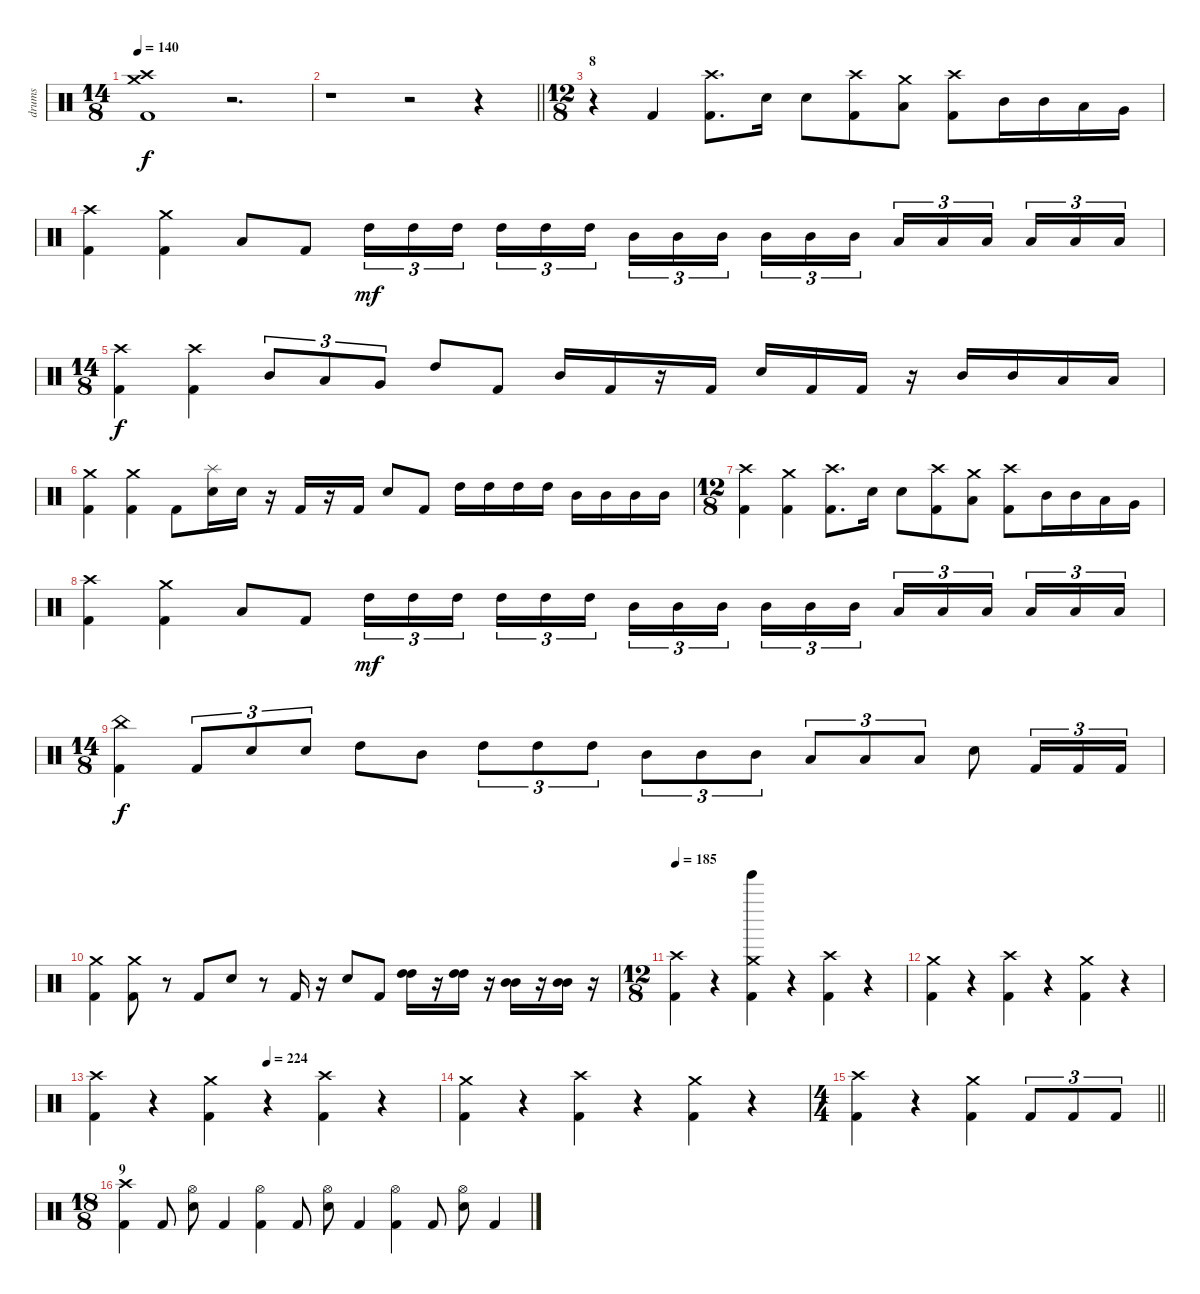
\track ("drums" "drums") {instrument percussion}
\staff {score}
\articulation defaults
\ts (14 8)
\tempo 140
\clef neutral
\ks c
("Crash medium (hit)" "Crash high (hit)" "Kick (hit) 2").1{dy f} r.2{d} |
\barLineRight lightlight
r.1 r.2 r.4 |
\ts (12 8)
\section ("" "8")
r.4 "Kick (hit) 2".4 ("Crash high (hit)" "Kick (hit) 2").8{d} "Electric Snare (hit)".16 "Electric Snare (hit)".8 ("Crash high (hit)" "Kick (hit) 2").8 ("Crash medium (hit)" "Low Tom (hit)").8 ("Crash high (hit)" "Kick (hit) 2").8 "Mid Tom (hit)".16 "Mid Tom (hit)".16 "Low Tom (hit)".16 "Very Low Tom (hit)".16 |
("Crash high (hit)" "Kick (hit) 2").4 ("Crash medium (hit)" "Kick (hit) 2").4 "Low Tom (hit)".8 "Kick (hit) 2".8 "High Tom (hit)".16{tu (3 2) dy mf} "High Tom (hit)".16{tu (3 2)} "High Tom (hit)".16{tu (3 2) beam splitsecondary} "High Tom (hit)".16{tu (3 2)} "High Tom (hit)".16{tu (3 2)} "High Tom (hit)".16{tu (3 2) beam splitsecondary} "Mid Tom (hit)".16{tu (3 2)} "Mid Tom (hit)".16{tu (3 2)} "Mid Tom (hit)".16{tu (3 2)} "Mid Tom (hit)".16{tu (3 2)} "Mid Tom (hit)".16{tu (3 2)} "Mid Tom (hit)".16{tu (3 2) beam splitsecondary} "Low Tom (hit)".16{tu (3 2)} "Low Tom (hit)".16{tu (3 2)} "Low Tom (hit)".16{tu (3 2) beam splitsecondary} "Low Tom (hit)".16{tu (3 2)} "Low Tom (hit)".16{tu (3 2)} "Low Tom (hit)".16{tu (3 2)} |
\ts (14 8)
("Crash high (hit)" "Kick (hit) 2").4{dy f} ("Crash high (hit)" "Kick (hit) 2").4 "Mid Tom (hit)".8{tu (3 2)} "Low Tom (hit)".8{tu (3 2)} "Very Low Tom (hit)".8{tu (3 2)} "High Tom (hit)".8 "Kick (hit) 2".8 "Mid Tom (hit)".16 "Kick (hit) 2".16 r.16 "Kick (hit) 2".16 "Electric Snare (hit)".16 "Kick (hit) 2".16 "Kick (hit) 2".16 r.16 "Mid Tom (hit)".16 "Mid Tom (hit)".16 "Low Tom (hit)".16 "Low Tom (hit)".16 |
("Kick (hit) 2" "Crash medium (hit)").4 ("Kick (hit) 2" "Crash medium (hit)").4 "Kick (hit) 2".8 ("Electric Snare (hit)" "Splash (hit)").16 "Electric Snare (hit)".16 r.16 "Kick (hit) 2".16 r.16 "Kick (hit) 2".16 "Electric Snare (hit)".8 "Kick (hit) 2".8 "High Tom (hit)".16 "High Tom (hit)".16 "High Tom (hit)".16 "High Tom (hit)".16 "Mid Tom (hit)".16 "Mid Tom (hit)".16 "Mid Tom (hit)".16 "Mid Tom (hit)".16 |
\ts (12 8)
("Kick (hit) 2" "Crash high (hit)").4 ("Crash medium (hit)" "Kick (hit) 2").4 ("Crash high (hit)" "Kick (hit) 2").8{d} "Electric Snare (hit)".16 "Electric Snare (hit)".8 ("Crash high (hit)" "Kick (hit) 2").8 ("Crash medium (hit)" "Low Tom (hit)").8 ("Crash high (hit)" "Kick (hit) 2").8 "Mid Tom (hit)".16 "Mid Tom (hit)".16 "Low Tom (hit)".16 "Very Low Tom (hit)".16 |
("Crash high (hit)" "Kick (hit) 2").4 ("Crash medium (hit)" "Kick (hit) 2").4 "Low Tom (hit)".8 "Kick (hit) 2".8 "High Tom (hit)".16{tu (3 2) dy mf} "High Tom (hit)".16{tu (3 2)} "High Tom (hit)".16{tu (3 2) beam splitsecondary} "High Tom (hit)".16{tu (3 2)} "High Tom (hit)".16{tu (3 2)} "High Tom (hit)".16{tu (3 2) beam splitsecondary} "Mid Tom (hit)".16{tu (3 2)} "Mid Tom (hit)".16{tu (3 2)} "Mid Tom (hit)".16{tu (3 2)} "Mid Tom (hit)".16{tu (3 2)} "Mid Tom (hit)".16{tu (3 2)} "Mid Tom (hit)".16{tu (3 2) beam splitsecondary} "Low Tom (hit)".16{tu (3 2)} "Low Tom (hit)".16{tu (3 2)} "Low Tom (hit)".16{tu (3 2) beam splitsecondary} "Low Tom (hit)".16{tu (3 2)} "Low Tom (hit)".16{tu (3 2)} "Low Tom (hit)".16{tu (3 2)} |
\ts (14 8)
("China (hit)" "Kick (hit) 2").4{dy f} "Kick (hit) 2".8{tu (3 2)} "Electric Snare (hit)".8{tu (3 2)} "Electric Snare (hit)".8{tu (3 2)} "High Tom (hit)".8 "Mid Tom (hit)".8 "High Tom (hit)".8{tu (3 2)} "High Tom (hit)".8{tu (3 2)} "High Tom (hit)".8{tu (3 2)} "Mid Tom (hit)".8{tu (3 2)} "Mid Tom (hit)".8{tu (3 2)} "Mid Tom (hit)".8{tu (3 2)} "Low Tom (hit)".8{tu (3 2)} "Low Tom (hit)".8{tu (3 2)} "Low Tom (hit)".8{tu (3 2)} "Snare (hit) 2".8 "Kick (hit) 2".16{tu (3 2)} "Kick (hit) 2".16{tu (3 2)} "Kick (hit) 2".16{tu (3 2)} |
("Crash medium (hit)" "Kick (hit) 2").4 ("Crash medium (hit)" "Kick (hit) 2").8 r.8 "Kick (hit) 2".8 "Electric Snare (hit)".8 r.8 "Kick (hit) 2".16 r.16 "Electric Snare (hit)".8 "Kick (hit) 2".8 ("High Tom (hit)" "High Tom (hit)").16 r.16 ("High Tom (hit)" "High Tom (hit)").16 r.16 ("Mid Tom (hit)" "Mid Tom (hit)").16 r.16 ("Mid Tom (hit)" "Mid Tom (hit)").16 r.16 |
\ts (12 8)
\tempo 185
("Crash high (hit)" "Kick (hit) 2").4 r.4 ("Tinkle Bell (hit)" "Crash medium (hit)" "Kick (hit) 2").4 r.4 ("Crash high (hit)" "Kick (hit) 2").4 r.4 |
("Crash medium (hit)" "Kick (hit) 2").4 r.4 ("Crash high (hit)" "Kick (hit) 2").4 r.4 ("Crash medium (hit)" "Kick (hit) 2").4 r.4 |
\tempo (224 0.5)
("Crash high (hit)" "Kick (hit) 2").4 r.4 ("Crash medium (hit)" "Kick (hit) 2").4 r.4 ("Crash high (hit)" "Kick (hit) 2").4 r.4 |
("Crash medium (hit)" "Kick (hit) 2").4 r.4 ("Crash high (hit)" "Kick (hit) 2").4 r.4 ("Crash medium (hit)" "Kick (hit) 2").4 r.4 |
\ts (4 4)
\barLineRight lightlight
("Crash high (hit)" "Kick (hit) 2").4 r.4 ("Crash medium (hit)" "Kick (hit) 2").4 "Kick (hit) 2".8{tu (3 2)} "Kick (hit) 2".8{tu (3 2)} "Kick (hit) 2".8{tu (3 2)} |
\ts (18 8)
\section ("" "9")
("Crash high (hit)" "Kick (hit) 2").4 "Kick (hit) 2".8 ("Hi-Hat (open)" "Electric Snare (hit)").8 "Kick (hit) 2".4 ("Hi-Hat (open)" "Kick (hit) 2").4 "Kick (hit) 2".8 ("Hi-Hat (open)" "Electric Snare (hit)").8 "Kick (hit) 2".4 ("Hi-Hat (open)" "Kick (hit) 2").4 "Kick (hit) 2".8 ("Hi-Hat (open)" "Electric Snare (hit)").8 "Kick (hit) 2".4
